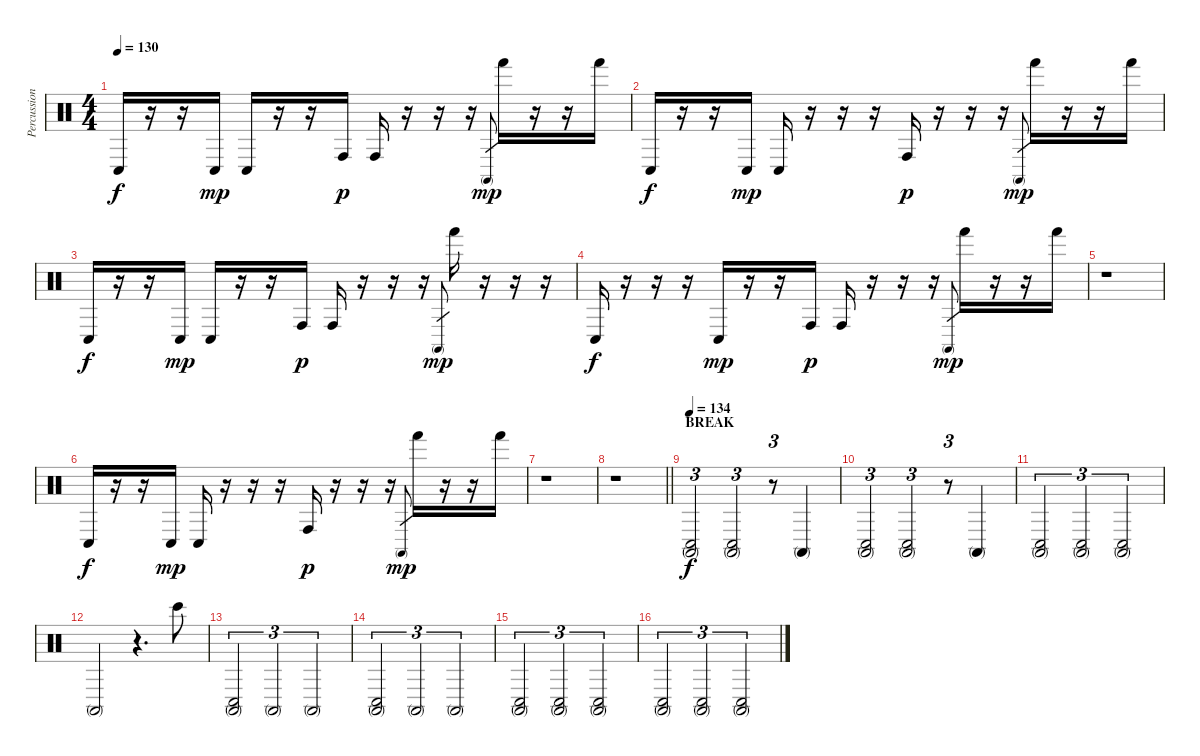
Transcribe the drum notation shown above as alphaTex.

\track ("Percussions" "Percussion") {instrument percussion}
\staff {score}
\articulation defaults
\ts (4 4)
\tempo 130
\clef neutral
\ks c "Conga low (hit)".16{dy f}
r.16 r.16 "Conga low (hit)".16{dy mp} "Conga low (hit)".16 r.16 r.16 "Conga high (hit)".16{dy p} "Conga high (hit)".16 r.16 r.16 r.16 "Conga high (mute)".8{gr dy mp} "Hand (hit)".16 r.16 r.16 "Hand (hit)".16 |
"Conga low (hit)".16{dy f} r.16 r.16 "Conga low (hit)".16{dy mp} "Conga low (hit)".16 r.16 r.16 r.16 "Conga high (hit)".16{dy p} r.16 r.16 r.16 "Conga high (mute)".8{gr dy mp} "Hand (hit)".16 r.16 r.16 "Hand (hit)".16 |
"Conga low (hit)".16{dy f} r.16 r.16 "Conga low (hit)".16{dy mp} "Conga low (hit)".16 r.16 r.16 "Conga high (hit)".16{dy p} "Conga high (hit)".16 r.16 r.16 r.16 "Conga high (mute)".8{gr dy mp} "Hand (hit)".16 r.16 r.16 r.16 |
"Conga low (hit)".16{dy f} r.16 r.16 r.16 "Conga low (hit)".16{dy mp} r.16 r.16 "Conga high (hit)".16{dy p} "Conga high (hit)".16 r.16 r.16 r.16 "Conga high (mute)".8{gr dy mp} "Hand (hit)".16 r.16 r.16 "Hand (hit)".16 |
r.1 |
"Conga low (hit)".16{dy f} r.16 r.16 "Conga low (hit)".16{dy mp} "Conga low (hit)".16 r.16 r.16 r.16 "Conga high (hit)".16{dy p} r.16 r.16 r.16 "Conga high (mute)".8{gr dy mp} "Hand (hit)".16 r.16 r.16 "Hand (hit)".16 |
r.1 |
\barLineRight lightlight
r.1 |
\section ("" "BREAK")
\tempo 134
("Conga low (hit)" "Conga high (mute)").2{tu (3 2) dy f} ("Conga low (hit)" "Conga high (mute)").2{tu (3 2)} r.8{tu (3 2)} "Conga high (mute)".4 |
("Conga low (hit)" "Conga high (mute)").2{tu (3 2)} ("Conga low (hit)" "Conga high (mute)").2{tu (3 2)} r.8{tu (3 2)} "Conga high (mute)".4 |
("Conga low (hit)" "Conga high (mute)").2{tu (3 2)} ("Conga low (hit)" "Conga high (mute)").2{tu (3 2)} ("Conga low (hit)" "Conga high (mute)").2{tu (3 2)} |
"Conga high (mute)".2 r.4{d} "Bongo High (hit)".8 |
("Conga low (hit)" "Conga high (mute)").2{tu (3 2)} "Conga high (mute)".2{tu (3 2)} "Conga high (mute)".2{tu (3 2)} |
("Conga low (hit)" "Conga high (mute)").2{tu (3 2)} "Conga high (mute)".2{tu (3 2)} "Conga high (mute)".2{tu (3 2)} |
("Conga low (hit)" "Conga high (mute)").2{tu (3 2)} ("Conga low (hit)" "Conga high (mute)").2{tu (3 2)} ("Conga low (hit)" "Conga high (mute)").2{tu (3 2)} |
("Conga low (hit)" "Conga high (mute)").2{tu (3 2)} ("Conga low (hit)" "Conga high (mute)").2{tu (3 2)} ("Conga low (hit)" "Conga high (mute)").2{tu (3 2)}
